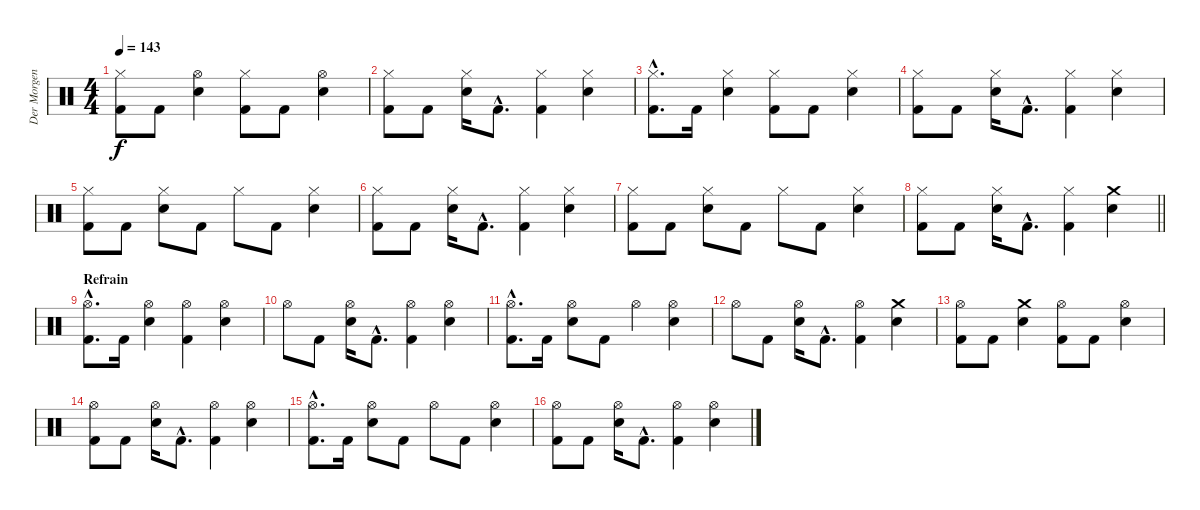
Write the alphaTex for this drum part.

\track ("Der Morgenstern" "Der Morgen") {instrument percussion}
\staff {score}
\articulation defaults
\ts (4 4)
\tempo 143
\clef neutral
\ks c
("Hi-Hat (closed)" "Kick (hit) 2").8{dy f} "Kick (hit) 2".8 ("Hi-Hat (open)" "Electric Snare (hit)").4 ("Hi-Hat (closed)" "Kick (hit) 2").8 "Kick (hit) 2".8 ("Hi-Hat (open)" "Electric Snare (hit)").4 |
("Hi-Hat (closed)" "Kick (hit) 2").8 "Kick (hit) 2".8 ("Hi-Hat (closed)" "Electric Snare (hit)").16 "Kick (hit) 2"{hac}.8{d} ("Hi-Hat (closed)" "Kick (hit) 2").4 ("Hi-Hat (closed)" "Electric Snare (hit)").4 |
("Hi-Hat (closed)"{hac} "Kick (hit) 2"{hac}).8{d} "Kick (hit) 2".16 ("Hi-Hat (closed)" "Electric Snare (hit)").4 ("Hi-Hat (closed)" "Kick (hit) 2").8 "Kick (hit) 2".8 ("Hi-Hat (closed)" "Electric Snare (hit)").4 |
("Hi-Hat (closed)" "Kick (hit) 2").8 "Kick (hit) 2".8 ("Hi-Hat (closed)" "Electric Snare (hit)").16 "Kick (hit) 2"{hac}.8{d} ("Hi-Hat (closed)" "Kick (hit) 2").4 ("Hi-Hat (closed)" "Electric Snare (hit)").4 |
("Hi-Hat (closed)" "Kick (hit) 2").8 "Kick (hit) 2".8 ("Hi-Hat (closed)" "Electric Snare (hit)").8 "Kick (hit) 2".8 "Hi-Hat (closed)".8 "Kick (hit) 2".8 ("Hi-Hat (closed)" "Electric Snare (hit)").4 |
("Hi-Hat (closed)" "Kick (hit) 2").8 "Kick (hit) 2".8 ("Hi-Hat (closed)" "Electric Snare (hit)").16 "Kick (hit) 2"{hac}.8{d} ("Hi-Hat (closed)" "Kick (hit) 2").4 ("Hi-Hat (closed)" "Electric Snare (hit)").4 |
("Hi-Hat (closed)" "Kick (hit) 2").8 "Kick (hit) 2".8 ("Hi-Hat (closed)" "Electric Snare (hit)").8 "Kick (hit) 2".8 "Hi-Hat (closed)".8 "Kick (hit) 2".8 ("Hi-Hat (closed)" "Electric Snare (hit)").4 |
\barLineRight lightlight
("Hi-Hat (closed)" "Kick (hit) 2").8 "Kick (hit) 2".8 ("Hi-Hat (closed)" "Electric Snare (hit)").16 "Kick (hit) 2"{hac}.8{d} ("Hi-Hat (closed)" "Kick (hit) 2").4 ("Crash medium (hit)" "Electric Snare (hit)").4 |
\section ("" "Refrain")
("Hi-Hat (open)"{hac} "Kick (hit) 2"{hac}).8{d} "Kick (hit) 2".16 ("Hi-Hat (open)" "Electric Snare (hit)").4 ("Hi-Hat (open)" "Kick (hit) 2").4 ("Hi-Hat (open)" "Electric Snare (hit)").4 |
"Hi-Hat (open)".8 "Kick (hit) 2".8 ("Hi-Hat (open)" "Electric Snare (hit)").16 "Kick (hit) 2"{hac}.8{d} ("Hi-Hat (open)" "Kick (hit) 2").4 ("Hi-Hat (open)" "Electric Snare (hit)").4 |
("Hi-Hat (open)"{hac} "Kick (hit) 2"{hac}).8{d} "Kick (hit) 2".16 ("Hi-Hat (open)" "Electric Snare (hit)").8 "Kick (hit) 2".8 "Hi-Hat (open)".4 ("Hi-Hat (open)" "Electric Snare (hit)").4 |
"Hi-Hat (open)".8 "Kick (hit) 2".8 ("Hi-Hat (open)" "Electric Snare (hit)").16 "Kick (hit) 2"{hac}.8{d} ("Hi-Hat (open)" "Kick (hit) 2").4 ("Crash medium (hit)" "Electric Snare (hit)").4 |
("Hi-Hat (open)" "Kick (hit) 2").8 "Kick (hit) 2".8 ("Crash medium (hit)" "Electric Snare (hit)").4 ("Hi-Hat (open)" "Kick (hit) 2").8 "Kick (hit) 2".8 ("Hi-Hat (open)" "Electric Snare (hit)").4 |
("Hi-Hat (open)" "Kick (hit) 2").8 "Kick (hit) 2".8 ("Hi-Hat (open)" "Electric Snare (hit)").16 "Kick (hit) 2"{hac}.8{d} ("Hi-Hat (open)" "Kick (hit) 2").4 ("Hi-Hat (open)" "Electric Snare (hit)").4 |
("Hi-Hat (open)"{hac} "Kick (hit) 2"{hac}).8{d} "Kick (hit) 2".16 ("Hi-Hat (open)" "Electric Snare (hit)").8 "Kick (hit) 2".8 "Hi-Hat (open)".8 "Kick (hit) 2".8 ("Hi-Hat (open)" "Electric Snare (hit)").4 |
("Hi-Hat (open)" "Kick (hit) 2").8 "Kick (hit) 2".8 ("Hi-Hat (open)" "Electric Snare (hit)").16 "Kick (hit) 2"{hac}.8{d} ("Hi-Hat (open)" "Kick (hit) 2").4 ("Hi-Hat (open)" "Electric Snare (hit)").4
